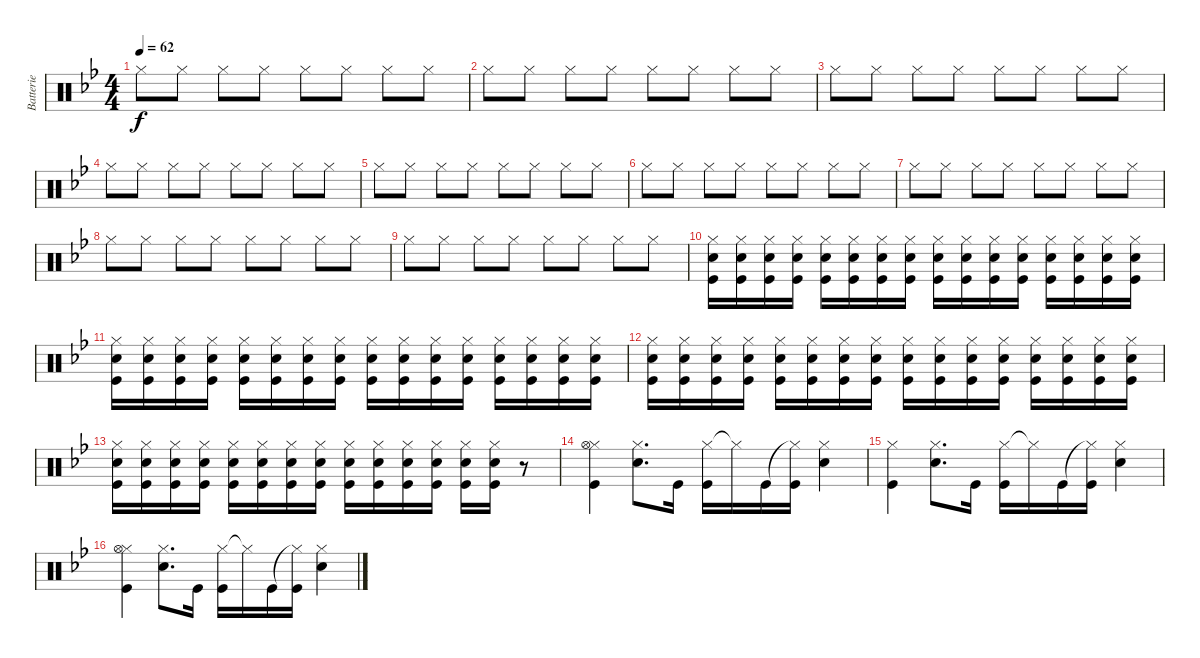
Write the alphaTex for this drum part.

\track ("Batterie" "Batterie") {instrument percussion}
\staff {score}
\articulation defaults
\ts (4 4)
\tempo 62
\clef neutral
\ks bb "Hi-Hat (closed)".8{dy f} "Hi-Hat (closed)".8 "Hi-Hat (closed)".8 "Hi-Hat (closed)".8 "Hi-Hat (closed)".8 "Hi-Hat (closed)".8 "Hi-Hat (closed)".8 "Hi-Hat (closed)".8
|
"Hi-Hat (closed)".8 "Hi-Hat (closed)".8 "Hi-Hat (closed)".8 "Hi-Hat (closed)".8 "Hi-Hat (closed)".8 "Hi-Hat (closed)".8 "Hi-Hat (closed)".8 "Hi-Hat (closed)".8 |
"Hi-Hat (closed)".8 "Hi-Hat (closed)".8 "Hi-Hat (closed)".8 "Hi-Hat (closed)".8 "Hi-Hat (closed)".8 "Hi-Hat (closed)".8 "Hi-Hat (closed)".8 "Hi-Hat (closed)".8 |
"Hi-Hat (closed)".8 "Hi-Hat (closed)".8 "Hi-Hat (closed)".8 "Hi-Hat (closed)".8 "Hi-Hat (closed)".8 "Hi-Hat (closed)".8 "Hi-Hat (closed)".8 "Hi-Hat (closed)".8 |
"Hi-Hat (closed)".8 "Hi-Hat (closed)".8 "Hi-Hat (closed)".8 "Hi-Hat (closed)".8 "Hi-Hat (closed)".8 "Hi-Hat (closed)".8 "Hi-Hat (closed)".8 "Hi-Hat (closed)".8 |
"Hi-Hat (closed)".8 "Hi-Hat (closed)".8 "Hi-Hat (closed)".8 "Hi-Hat (closed)".8 "Hi-Hat (closed)".8 "Hi-Hat (closed)".8 "Hi-Hat (closed)".8 "Hi-Hat (closed)".8 |
"Hi-Hat (closed)".8 "Hi-Hat (closed)".8 "Hi-Hat (closed)".8 "Hi-Hat (closed)".8 "Hi-Hat (closed)".8 "Hi-Hat (closed)".8 "Hi-Hat (closed)".8 "Hi-Hat (closed)".8 |
"Hi-Hat (closed)".8 "Hi-Hat (closed)".8 "Hi-Hat (closed)".8 "Hi-Hat (closed)".8 "Hi-Hat (closed)".8 "Hi-Hat (closed)".8 "Hi-Hat (closed)".8 "Hi-Hat (closed)".8 |
"Hi-Hat (closed)".8 "Hi-Hat (closed)".8 "Hi-Hat (closed)".8 "Hi-Hat (closed)".8 "Hi-Hat (closed)".8 "Hi-Hat (closed)".8 "Hi-Hat (closed)".8 "Hi-Hat (closed)".8 |
("Hi-Hat (closed)" "Snare (hit) 2" "Kick (hit)").16{volume 6} ("Hi-Hat (closed)" "Snare (hit) 2" "Kick (hit)").16{volume 16} ("Hi-Hat (closed)" "Snare (hit) 2" "Kick (hit)").16 ("Hi-Hat (closed)" "Snare (hit) 2" "Kick (hit)").16 ("Hi-Hat (closed)" "Snare (hit) 2" "Kick (hit)").16 ("Hi-Hat (closed)" "Snare (hit) 2" "Kick (hit)").16 ("Hi-Hat (closed)" "Snare (hit) 2" "Kick (hit)").16 ("Hi-Hat (closed)" "Snare (hit) 2" "Kick (hit)").16 ("Hi-Hat (closed)" "Snare (hit) 2" "Kick (hit)").16 ("Hi-Hat (closed)" "Snare (hit) 2" "Kick (hit)").16 ("Hi-Hat (closed)" "Snare (hit) 2" "Kick (hit)").16 ("Hi-Hat (closed)" "Snare (hit) 2" "Kick (hit)").16 ("Hi-Hat (closed)" "Snare (hit) 2" "Kick (hit)").16 ("Hi-Hat (closed)" "Snare (hit) 2" "Kick (hit)").16 ("Hi-Hat (closed)" "Snare (hit) 2" "Kick (hit)").16 ("Hi-Hat (closed)" "Snare (hit) 2" "Kick (hit)").16 |
("Hi-Hat (closed)" "Snare (hit) 2" "Kick (hit)").16 ("Hi-Hat (closed)" "Snare (hit) 2" "Kick (hit)").16 ("Hi-Hat (closed)" "Snare (hit) 2" "Kick (hit)").16 ("Hi-Hat (closed)" "Snare (hit) 2" "Kick (hit)").16 ("Hi-Hat (closed)" "Snare (hit) 2" "Kick (hit)").16 ("Hi-Hat (closed)" "Snare (hit) 2" "Kick (hit)").16 ("Hi-Hat (closed)" "Snare (hit) 2" "Kick (hit)").16 ("Hi-Hat (closed)" "Snare (hit) 2" "Kick (hit)").16 ("Hi-Hat (closed)" "Snare (hit) 2" "Kick (hit)").16 ("Hi-Hat (closed)" "Snare (hit) 2" "Kick (hit)").16 ("Hi-Hat (closed)" "Snare (hit) 2" "Kick (hit)").16 ("Hi-Hat (closed)" "Snare (hit) 2" "Kick (hit)").16 ("Hi-Hat (closed)" "Snare (hit) 2" "Kick (hit)").16 ("Hi-Hat (closed)" "Snare (hit) 2" "Kick (hit)").16 ("Hi-Hat (closed)" "Snare (hit) 2" "Kick (hit)").16 ("Hi-Hat (closed)" "Snare (hit) 2" "Kick (hit)").16 |
("Hi-Hat (closed)" "Snare (hit) 2" "Kick (hit)").16 ("Hi-Hat (closed)" "Snare (hit) 2" "Kick (hit)").16 ("Hi-Hat (closed)" "Snare (hit) 2" "Kick (hit)").16 ("Hi-Hat (closed)" "Snare (hit) 2" "Kick (hit)").16 ("Hi-Hat (closed)" "Snare (hit) 2" "Kick (hit)").16 ("Hi-Hat (closed)" "Snare (hit) 2" "Kick (hit)").16 ("Hi-Hat (closed)" "Snare (hit) 2" "Kick (hit)").16 ("Hi-Hat (closed)" "Snare (hit) 2" "Kick (hit)").16 ("Hi-Hat (closed)" "Snare (hit) 2" "Kick (hit)").16 ("Hi-Hat (closed)" "Snare (hit) 2" "Kick (hit)").16 ("Hi-Hat (closed)" "Snare (hit) 2" "Kick (hit)").16 ("Hi-Hat (closed)" "Snare (hit) 2" "Kick (hit)").16 ("Hi-Hat (closed)" "Snare (hit) 2" "Kick (hit)").16 ("Hi-Hat (closed)" "Snare (hit) 2" "Kick (hit)").16 ("Hi-Hat (closed)" "Snare (hit) 2" "Kick (hit)").16 ("Hi-Hat (closed)" "Snare (hit) 2" "Kick (hit)").16 |
("Hi-Hat (closed)" "Snare (hit) 2" "Kick (hit)").16 ("Hi-Hat (closed)" "Snare (hit) 2" "Kick (hit)").16 ("Hi-Hat (closed)" "Snare (hit) 2" "Kick (hit)").16 ("Hi-Hat (closed)" "Snare (hit) 2" "Kick (hit)").16 ("Hi-Hat (closed)" "Snare (hit) 2" "Kick (hit)").16 ("Hi-Hat (closed)" "Snare (hit) 2" "Kick (hit)").16 ("Hi-Hat (closed)" "Snare (hit) 2" "Kick (hit)").16 ("Hi-Hat (closed)" "Snare (hit) 2" "Kick (hit)").16 ("Hi-Hat (closed)" "Snare (hit) 2" "Kick (hit)").16 ("Hi-Hat (closed)" "Snare (hit) 2" "Kick (hit)").16 ("Hi-Hat (closed)" "Snare (hit) 2" "Kick (hit)").16 ("Hi-Hat (closed)" "Snare (hit) 2" "Kick (hit)").16 ("Hi-Hat (closed)" "Snare (hit) 2" "Kick (hit)").16 ("Hi-Hat (closed)" "Snare (hit) 2" "Kick (hit)").16 r.8 |
("Hi-Hat (closed)" "Hi-Hat (open)" "Kick (hit)").4 ("Hi-Hat (closed)" "Snare (hit) 2").8{d} "Kick (hit)".16 ("Hi-Hat (closed)" "Kick (hit)").16 "Hi-Hat (closed)"{t}.16 "Kick (hit)".16 ("Hi-Hat (closed)"{t} "Kick (hit)").16 ("Hi-Hat (closed)" "Snare (hit) 2").4 |
("Hi-Hat (closed)" "Kick (hit)").4 ("Hi-Hat (closed)" "Snare (hit) 2").8{d} "Kick (hit)".16 ("Hi-Hat (closed)" "Kick (hit)").16 "Hi-Hat (closed)"{t}.16 "Kick (hit)".16 ("Hi-Hat (closed)"{t} "Kick (hit)").16 ("Hi-Hat (closed)" "Snare (hit) 2").4 |
("Hi-Hat (closed)" "Hi-Hat (open)" "Kick (hit)").4 ("Hi-Hat (closed)" "Snare (hit) 2").8{d} "Kick (hit)".16 ("Hi-Hat (closed)" "Kick (hit)").16 "Hi-Hat (closed)"{t}.16 "Kick (hit)".16 ("Hi-Hat (closed)"{t} "Kick (hit)").16 ("Hi-Hat (closed)" "Snare (hit) 2").4
